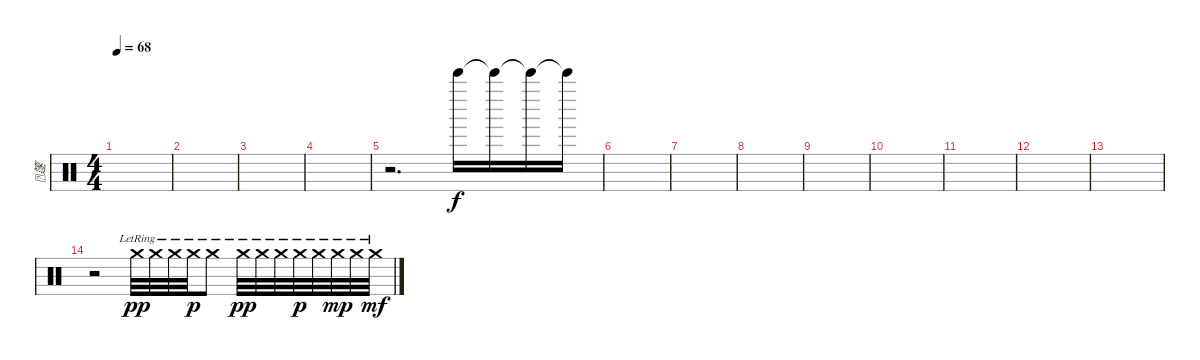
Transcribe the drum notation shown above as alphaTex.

\track ("篴" "篴") {instrument percussion}
\staff {score}
\articulation defaults
\ts (4 4)
\tempo 68
\clef neutral
\ks c
|
|
|
|
r.2{d} "Bell Tree (hit)".16 "Bell Tree (hit)"{t}.16{dy f} "Bell Tree (hit)"{t}.16 "Bell Tree (hit)"{t}.16 |
|
|
|
|
|
|
|
|
r.2 "Crash medium (hit)"{lr}.32{dy pp} "Crash medium (hit)"{lr}.32 "Crash medium (hit)"{lr}.32 "Crash medium (hit)"{lr}.32{dy p} "Crash medium (hit)"{lr}.8 "Crash medium (hit)"{lr}.32{dy pp} "Crash medium (hit)"{lr}.32 "Crash medium (hit)"{lr}.32 "Crash medium (hit)"{lr}.32{dy p} "Crash medium (hit)"{lr}.32 "Crash medium (hit)"{lr}.32{dy mp} "Crash medium (hit)"{lr}.32 "Crash medium (hit)"{lr}.32{dy mf}
